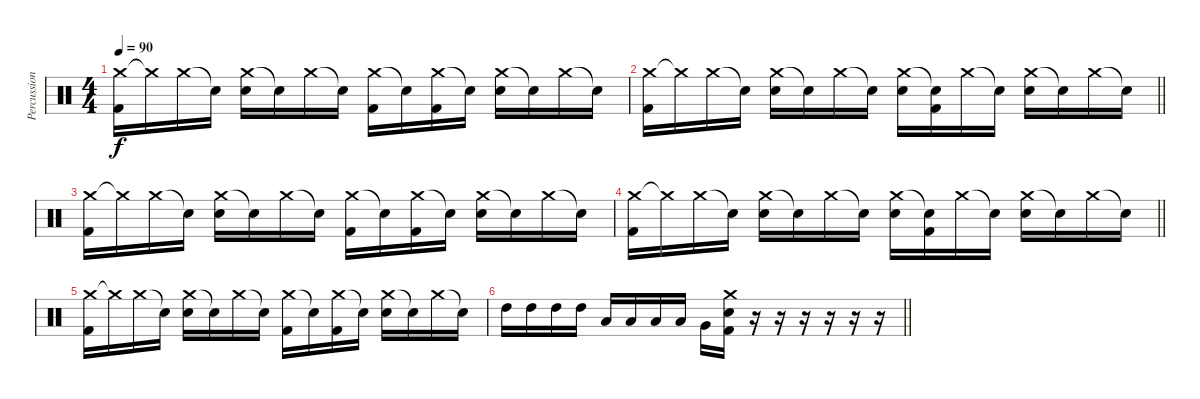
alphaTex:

\track ("Percussion" "Percussion") {instrument percussion}
\staff {score}
\articulation defaults
\ts (4 4)
\tempo 90
\clef neutral
\ks c
("Crash medium (hit)" "Kick (hit) 2").16{dy f} "Crash medium (hit)"{t}.16 "Crash medium (hit)".16 "Snare (hit)"{t}.16 ("Crash medium (hit)" "Snare (hit) 2").16 "Snare (hit)"{t}.16 "Crash medium (hit)".16 "Snare (hit)"{t}.16 ("Crash medium (hit)" "Kick (hit) 2").16 "Snare (hit)"{t}.16 ("Crash medium (hit)" "Kick (hit) 2").16 "Snare (hit)"{t}.16 ("Crash medium (hit)" "Snare (hit) 2").16 "Snare (hit)"{t}.16 "Crash medium (hit)".16 "Snare (hit)"{t}.16 |
\barLineRight lightlight
("Crash medium (hit)" "Kick (hit) 2").16 "Crash medium (hit)"{t}.16 "Crash medium (hit)".16 "Snare (hit)"{t}.16 ("Crash medium (hit)" "Snare (hit) 2").16 "Snare (hit)"{t}.16 "Crash medium (hit)".16 "Snare (hit)"{t}.16 ("Crash medium (hit)" "Snare (hit) 2").16 ("Snare (hit)"{t} "Kick (hit) 2").16 "Crash medium (hit)".16 "Snare (hit)"{t}.16 ("Crash medium (hit)" "Snare (hit) 2").16 "Snare (hit)"{t}.16 "Crash medium (hit)".16 "Snare (hit)"{t}.16 |
("Crash medium (hit)" "Kick (hit) 2").16 "Crash medium (hit)"{t}.16 "Crash medium (hit)".16 "Snare (hit)"{t}.16 ("Crash medium (hit)" "Snare (hit) 2").16 "Snare (hit)"{t}.16 "Crash medium (hit)".16 "Snare (hit)"{t}.16 ("Crash medium (hit)" "Kick (hit) 2").16 "Snare (hit)"{t}.16 ("Crash medium (hit)" "Kick (hit) 2").16 "Snare (hit)"{t}.16 ("Crash medium (hit)" "Snare (hit) 2").16 "Snare (hit)"{t}.16 "Crash medium (hit)".16 "Snare (hit)"{t}.16 |
\barLineRight lightlight
("Crash medium (hit)" "Kick (hit) 2").16 "Crash medium (hit)"{t}.16 "Crash medium (hit)".16 "Snare (hit)"{t}.16 ("Crash medium (hit)" "Snare (hit) 2").16 "Snare (hit)"{t}.16 "Crash medium (hit)".16 "Snare (hit)"{t}.16 ("Crash medium (hit)" "Snare (hit) 2").16 ("Snare (hit)"{t} "Kick (hit) 2").16 "Crash medium (hit)".16 "Snare (hit)"{t}.16 ("Crash medium (hit)" "Snare (hit) 2").16 "Snare (hit)"{t}.16 "Crash medium (hit)".16 "Snare (hit)"{t}.16 |
("Crash medium (hit)" "Kick (hit) 2").16 "Crash medium (hit)"{t}.16 "Crash medium (hit)".16 "Snare (hit)"{t}.16 ("Crash medium (hit)" "Snare (hit) 2").16 "Snare (hit)"{t}.16 "Crash medium (hit)".16 "Snare (hit)"{t}.16 ("Crash medium (hit)" "Kick (hit) 2").16 "Snare (hit)"{t}.16 ("Crash medium (hit)" "Kick (hit) 2").16 "Snare (hit)"{t}.16 ("Crash medium (hit)" "Snare (hit) 2").16 "Snare (hit)"{t}.16 "Crash medium (hit)".16 "Snare (hit)"{t}.16 |
\barLineRight lightlight "High Tom (hit)".16 "High Tom (hit)".16 "High Tom (hit)".16 "High Tom (hit)".16 "Low Tom (hit)".16 "Low Tom (hit)".16 "Low Tom (hit)".16 "Low Tom (hit)".16 "Very Low Tom (hit)".16
("Crash medium (hit)" "Snare (hit) 2" "Kick (hit) 2").16 r.16 r.16 r.16 r.16 r.16 r.16
